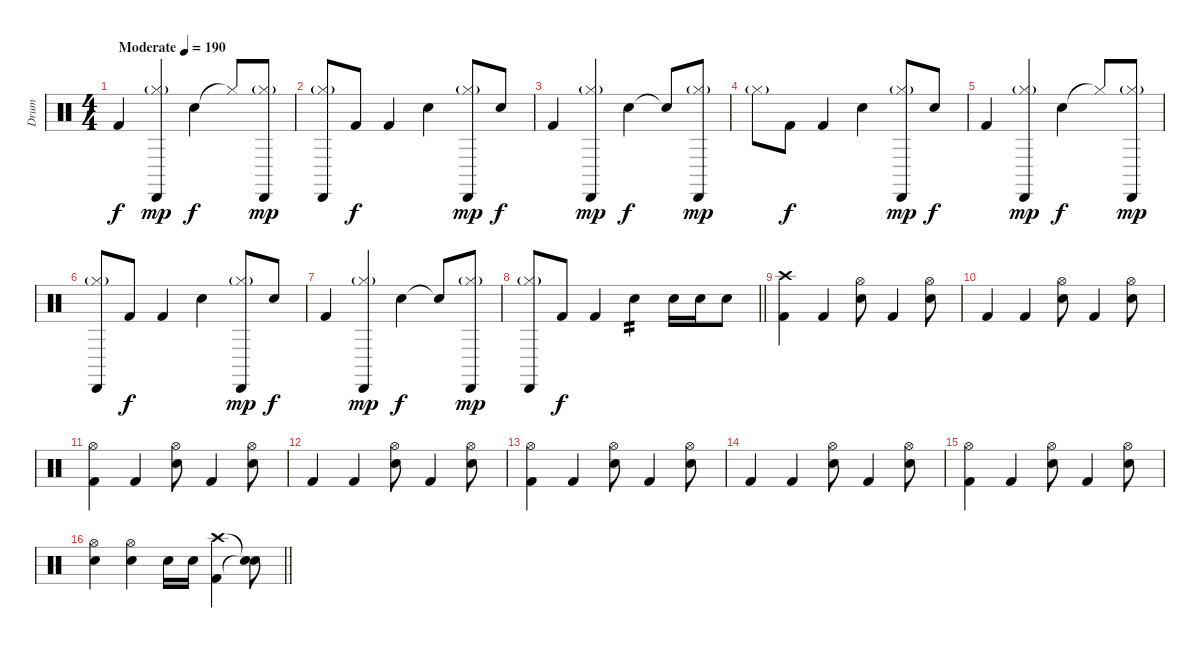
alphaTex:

\track ("Drum" "Drum") {instrument percussion}
\staff {score}
\articulation defaults
\ts (4 4)
\tempo (190 "Moderate")
\clef neutral
\ks c "Kick (hit) 2".4{dy f}
("Hi-Hat (closed)"{g} "Cabasa (hit)").4{dy mp} "Snare (hit) 2".4{dy f} "Hi-Hat (closed)"{t}.8 ("Hi-Hat (closed)"{g} "Cabasa (hit)").8{dy mp} |
("Hi-Hat (closed)"{g} "Cabasa (hit)").8 "Kick (hit) 2".8{dy f} "Kick (hit) 2".4 "Snare (hit) 2".4 ("Hi-Hat (closed)"{g} "Cabasa (hit)").8{dy mp} "Snare (hit) 2".8{dy f} |
"Kick (hit) 2".4 ("Hi-Hat (closed)"{g} "Cabasa (hit)").4{dy mp} "Snare (hit) 2".4{dy f} "Snare (hit)"{t}.8 ("Hi-Hat (closed)"{g} "Cabasa (hit)").8{dy mp} |
"Hi-Hat (closed)"{g}.8 "Kick (hit) 2".8{dy f} "Kick (hit) 2".4 "Snare (hit) 2".4 ("Hi-Hat (closed)"{g} "Cabasa (hit)").8{dy mp} "Snare (hit) 2".8{dy f} |
"Kick (hit) 2".4 ("Hi-Hat (closed)"{g} "Cabasa (hit)").4{dy mp} "Snare (hit) 2".4{dy f} "Hi-Hat (closed)"{t}.8 ("Hi-Hat (closed)"{g} "Cabasa (hit)").8{dy mp} |
("Hi-Hat (closed)"{g} "Cabasa (hit)").8 "Kick (hit) 2".8{dy f} "Kick (hit) 2".4 "Snare (hit) 2".4 ("Hi-Hat (closed)"{g} "Cabasa (hit)").8{dy mp} "Snare (hit) 2".8{dy f} |
"Kick (hit) 2".4 ("Hi-Hat (closed)"{g} "Cabasa (hit)").4{dy mp} "Snare (hit) 2".4{dy f} "Snare (hit)"{t}.8 ("Hi-Hat (closed)"{g} "Cabasa (hit)").8{dy mp} |
\barLineRight lightlight
("Hi-Hat (closed)"{g} "Cabasa (hit)").8 "Kick (hit) 2".8{dy f} "Kick (hit) 2".4 "Snare (hit) 2".4{tp 2} "Snare (hit) 2".16 "Snare (hit) 2".16 "Snare (hit) 2".8 |
\section ("" "")
("Kick (hit) 2" "Crash high (hit)").4 "Kick (hit) 2".4 ("Snare (hit) 2" "Hi-Hat (open)").8 "Kick (hit) 2".4 ("Snare (hit) 2" "Hi-Hat (open)").8 |
"Kick (hit) 2".4 "Kick (hit) 2".4 ("Snare (hit) 2" "Hi-Hat (open)").8 "Kick (hit) 2".4 ("Snare (hit) 2" "Hi-Hat (open)").8 |
("Kick (hit) 2" "Hi-Hat (open)").4 "Kick (hit) 2".4 ("Snare (hit) 2" "Hi-Hat (open)").8 "Kick (hit) 2".4 ("Snare (hit) 2" "Hi-Hat (open)").8 |
"Kick (hit) 2".4 "Kick (hit) 2".4 ("Snare (hit) 2" "Hi-Hat (open)").8 "Kick (hit) 2".4 ("Snare (hit) 2" "Hi-Hat (open)").8 |
("Kick (hit) 2" "Hi-Hat (open)").4 "Kick (hit) 2".4 ("Snare (hit) 2" "Hi-Hat (open)").8 "Kick (hit) 2".4 ("Snare (hit) 2" "Hi-Hat (open)").8 |
"Kick (hit) 2".4 "Kick (hit) 2".4 ("Snare (hit) 2" "Hi-Hat (open)").8 "Kick (hit) 2".4 ("Snare (hit) 2" "Hi-Hat (open)").8 |
("Kick (hit) 2" "Hi-Hat (open)").4 "Kick (hit) 2".4 ("Snare (hit) 2" "Hi-Hat (open)").8 "Kick (hit) 2".4 ("Snare (hit) 2" "Hi-Hat (open)").8 |
\barLineRight lightlight
("Snare (hit) 2" "Hi-Hat (open)").4 ("Snare (hit) 2" "Hi-Hat (open)").4 "Snare (hit) 2".16 "Snare (hit) 2".16 ("Kick (hit) 2" "Crash high (hit)").4 ("Snare (hit)"{t} "Snare (hit)"{t}).8
